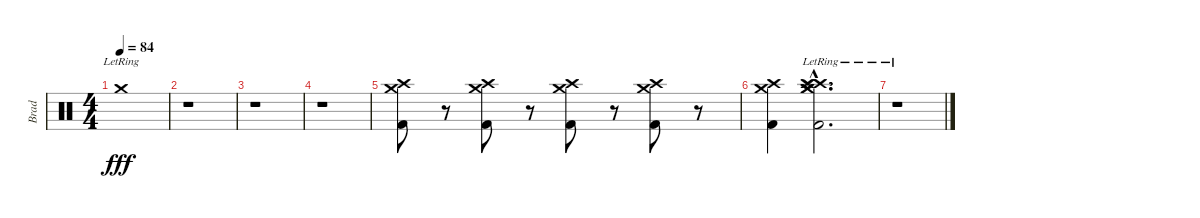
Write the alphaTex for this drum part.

\track ("Brad" "Brad") {instrument percussion}
\staff {score}
\articulation defaults
\ts (4 4)
\tempo 84
\clef neutral
\ks c "Crash medium (hit)"{lr}.1{dy fff}
|
r.1 |
r.1 |
r.1 |
("Crash high (hit)" "Crash medium (hit)" "Kick (hit) 2").8 r.8 ("Crash high (hit)" "Crash medium (hit)" "Kick (hit) 2").8 r.8 ("Crash high (hit)" "Crash medium (hit)" "Kick (hit) 2").8 r.8 ("Crash high (hit)" "Crash medium (hit)" "Kick (hit) 2").8 r.8 |
("Crash high (hit)" "Crash medium (hit)" "Kick (hit) 2").4 ("Crash high (hit)"{hac lr} "Crash medium (hit)"{hac lr} "Splash (hit)"{hac lr} "Crash high (hit)"{hac lr} "Crash medium (hit)"{hac lr} "Kick (hit) 2"{hac}).2{d} |
r.1
